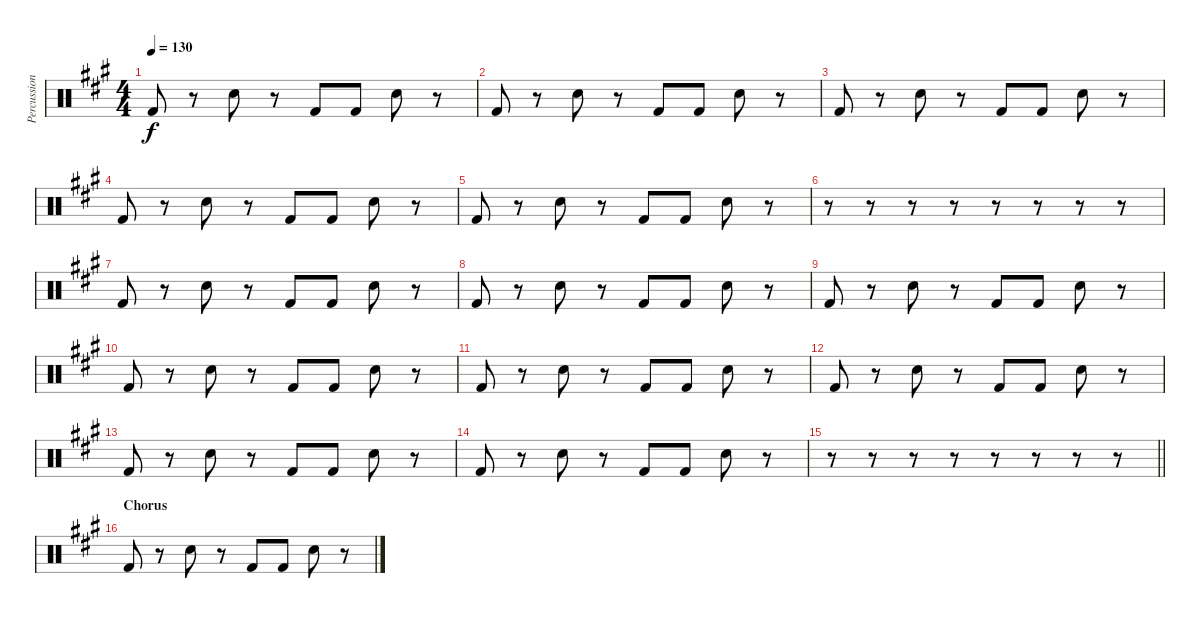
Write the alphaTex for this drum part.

\track ("Percussion" "Percussion") {instrument percussion}
\staff {score}
\articulation defaults
\ts (4 4)
\tempo 130
\clef neutral
\ks a "Kick (hit) 2".8{dy f}
r.8 "Snare (hit) 2".8 r.8 "Kick (hit) 2".8 "Kick (hit) 2".8 "Snare (hit) 2".8 r.8 |
"Kick (hit) 2".8 r.8 "Snare (hit) 2".8 r.8 "Kick (hit) 2".8 "Kick (hit) 2".8 "Snare (hit) 2".8 r.8 |
"Kick (hit) 2".8 r.8 "Snare (hit) 2".8 r.8 "Kick (hit) 2".8 "Kick (hit) 2".8 "Snare (hit) 2".8 r.8 |
"Kick (hit) 2".8 r.8 "Snare (hit) 2".8 r.8 "Kick (hit) 2".8 "Kick (hit) 2".8 "Snare (hit) 2".8 r.8 |
"Kick (hit) 2".8 r.8 "Snare (hit) 2".8 r.8 "Kick (hit) 2".8 "Kick (hit) 2".8 "Snare (hit) 2".8 r.8 |
r.8 r.8 r.8 r.8 r.8 r.8 r.8 r.8 |
"Kick (hit) 2".8 r.8 "Snare (hit) 2".8 r.8 "Kick (hit) 2".8 "Kick (hit) 2".8 "Snare (hit) 2".8 r.8 |
"Kick (hit) 2".8 r.8 "Snare (hit) 2".8 r.8 "Kick (hit) 2".8 "Kick (hit) 2".8 "Snare (hit) 2".8 r.8 |
"Kick (hit) 2".8 r.8 "Snare (hit) 2".8 r.8 "Kick (hit) 2".8 "Kick (hit) 2".8 "Snare (hit) 2".8 r.8 |
"Kick (hit) 2".8 r.8 "Snare (hit) 2".8 r.8 "Kick (hit) 2".8 "Kick (hit) 2".8 "Snare (hit) 2".8 r.8 |
"Kick (hit) 2".8 r.8 "Snare (hit) 2".8 r.8 "Kick (hit) 2".8 "Kick (hit) 2".8 "Snare (hit) 2".8 r.8 |
"Kick (hit) 2".8 r.8 "Snare (hit) 2".8 r.8 "Kick (hit) 2".8 "Kick (hit) 2".8 "Snare (hit) 2".8 r.8 |
"Kick (hit) 2".8 r.8 "Snare (hit) 2".8 r.8 "Kick (hit) 2".8 "Kick (hit) 2".8 "Snare (hit) 2".8 r.8 |
"Kick (hit) 2".8 r.8 "Snare (hit) 2".8 r.8 "Kick (hit) 2".8 "Kick (hit) 2".8 "Snare (hit) 2".8 r.8 |
\barLineRight lightlight
r.8 r.8 r.8 r.8 r.8 r.8 r.8 r.8 |
\section ("" "Chorus")
"Kick (hit) 2".8 r.8 "Snare (hit) 2".8 r.8 "Kick (hit) 2".8 "Kick (hit) 2".8 "Snare (hit) 2".8 r.8
